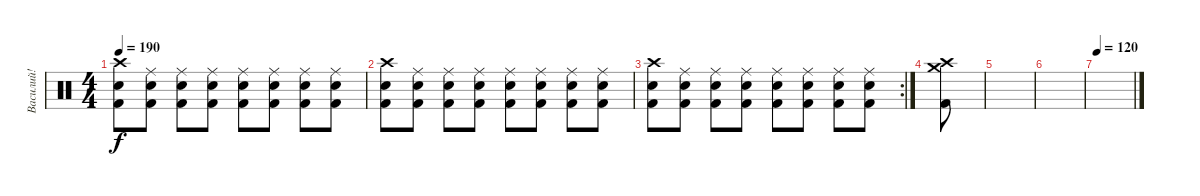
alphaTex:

\track ("Василий!" "Василий!") {instrument percussion}
\staff {score}
\articulation defaults
\ts (4 4)
\tempo 190
\clef neutral
\ks c
("Kick (hit) 2" "Electric Snare (hit)" "Crash high (hit)").8{dy f} ("Kick (hit) 2" "Electric Snare (hit)" "Ride (middle)").8 ("Kick (hit) 2" "Electric Snare (hit)" "Ride (middle)").8 ("Kick (hit) 2" "Electric Snare (hit)" "Ride (middle)").8 ("Kick (hit) 2" "Electric Snare (hit)" "Ride (middle)").8 ("Kick (hit) 2" "Electric Snare (hit)" "Ride (middle)").8 ("Kick (hit) 2" "Electric Snare (hit)" "Ride (middle)").8 ("Kick (hit) 2" "Electric Snare (hit)" "Ride (middle)").8 |
("Kick (hit) 2" "Electric Snare (hit)" "Crash high (hit)").8 ("Kick (hit) 2" "Electric Snare (hit)" "Ride (middle)").8 ("Kick (hit) 2" "Electric Snare (hit)" "Ride (middle)").8 ("Kick (hit) 2" "Electric Snare (hit)" "Ride (middle)").8 ("Kick (hit) 2" "Electric Snare (hit)" "Ride (middle)").8 ("Kick (hit) 2" "Electric Snare (hit)" "Ride (middle)").8 ("Kick (hit) 2" "Electric Snare (hit)" "Ride (middle)").8 ("Kick (hit) 2" "Electric Snare (hit)" "Ride (middle)").8 |
\rc 2
("Kick (hit) 2" "Electric Snare (hit)" "Crash high (hit)").8 ("Kick (hit) 2" "Electric Snare (hit)" "Ride (middle)").8 ("Kick (hit) 2" "Electric Snare (hit)" "Ride (middle)").8 ("Kick (hit) 2" "Electric Snare (hit)" "Ride (middle)").8 ("Kick (hit) 2" "Electric Snare (hit)" "Ride (middle)").8 ("Kick (hit) 2" "Electric Snare (hit)" "Ride (middle)").8 ("Kick (hit) 2" "Electric Snare (hit)" "Ride (middle)").8 ("Kick (hit) 2" "Electric Snare (hit)" "Ride (middle)").8 |
("Kick (hit) 2" "Crash high (hit)" "Crash medium (hit)").8 |
|
|
\tempo 120
